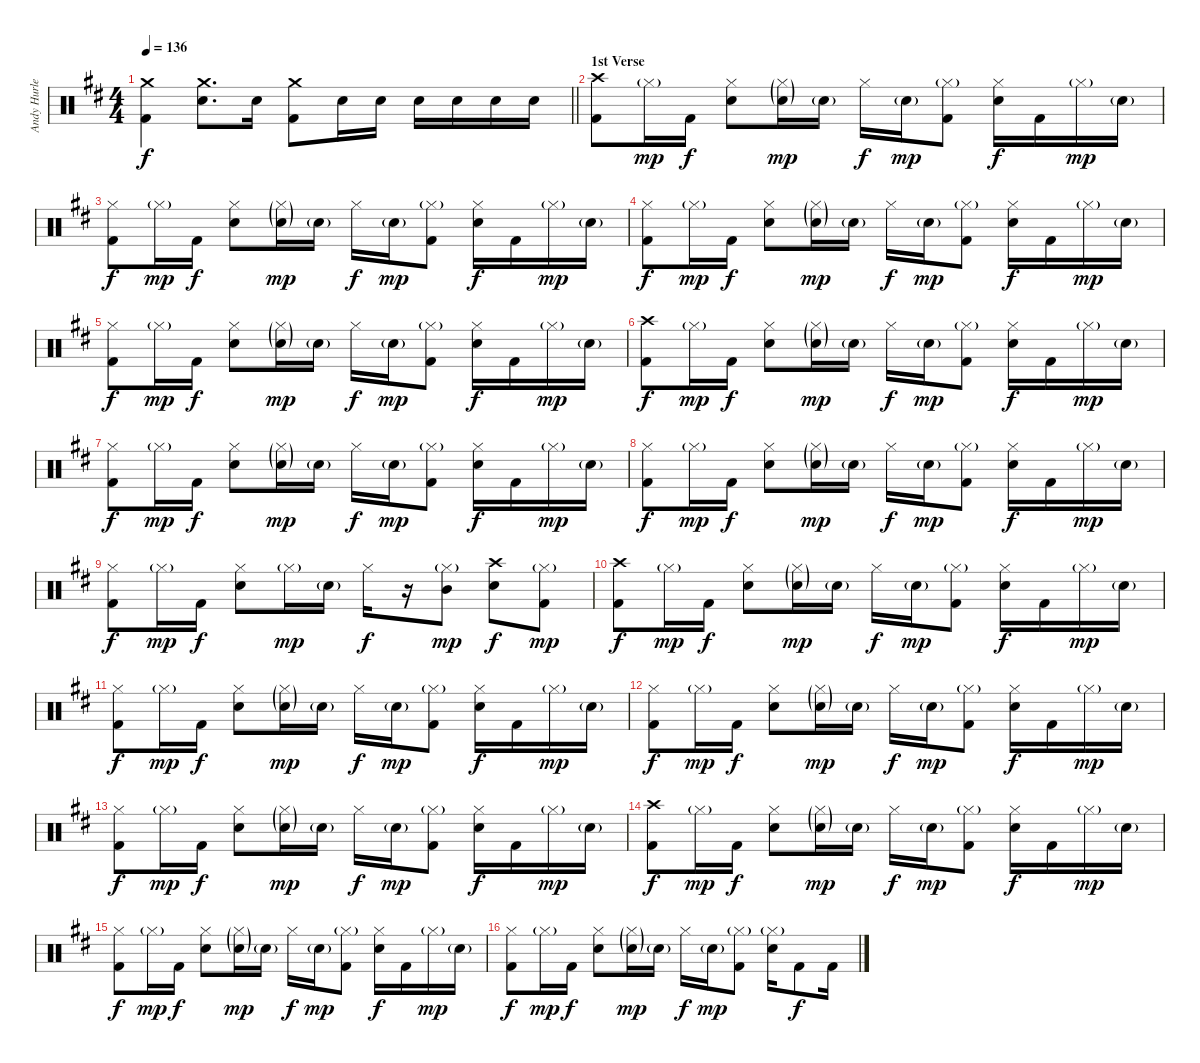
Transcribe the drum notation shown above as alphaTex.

\track ("Andy Hurley" "Andy Hurle") {instrument percussion}
\staff {score}
\articulation defaults
\ts (4 4)
\tempo 136
\clef neutral
\barLineRight lightlight
\ks d
("Crash medium (hit)" "Kick (hit) 2").4{dy f} ("Crash medium (hit)" "Snare (hit) 2").8{d} "Snare (hit) 2".16 ("Crash medium (hit)" "Kick (hit) 2").8 "Snare (hit) 2".16 "Snare (hit) 2".16 "Snare (hit) 2".16 "Snare (hit) 2".16 "Snare (hit) 2".16 "Snare (hit) 2".16 |
\section ("" "1st Verse")
("Crash high (hit)" "Kick (hit) 2").8{volume 13} "Hi-Hat (closed)"{g}.16{dy mp} "Kick (hit) 2".16{dy f} ("Hi-Hat (closed)" "Snare (hit) 2").8 ("Hi-Hat (closed)"{g} "Snare (hit) 2"{g}).16{dy mp} "Snare (hit) 2"{g}.16 "Hi-Hat (closed)".16{dy f} "Snare (hit) 2"{g}.16{dy mp} ("Hi-Hat (closed)"{g} "Kick (hit) 2").8 ("Hi-Hat (closed)" "Snare (hit) 2").16{dy f} "Kick (hit) 2".16 "Hi-Hat (closed)"{g}.16{dy mp} "Snare (hit) 2"{g}.16 |
("Hi-Hat (closed)" "Kick (hit) 2").8{dy f} "Hi-Hat (closed)"{g}.16{dy mp} "Kick (hit) 2".16{dy f} ("Hi-Hat (closed)" "Snare (hit) 2").8 ("Hi-Hat (closed)"{g} "Snare (hit) 2"{g}).16{dy mp} "Snare (hit) 2"{g}.16 "Hi-Hat (closed)".16{dy f} "Snare (hit) 2"{g}.16{dy mp} ("Hi-Hat (closed)"{g} "Kick (hit) 2").8 ("Hi-Hat (closed)" "Snare (hit) 2").16{dy f} "Kick (hit) 2".16 "Hi-Hat (closed)"{g}.16{dy mp} "Snare (hit) 2"{g}.16 |
("Hi-Hat (closed)" "Kick (hit) 2").8{dy f} "Hi-Hat (closed)"{g}.16{dy mp} "Kick (hit) 2".16{dy f} ("Hi-Hat (closed)" "Snare (hit) 2").8 ("Hi-Hat (closed)"{g} "Snare (hit) 2"{g}).16{dy mp} "Snare (hit) 2"{g}.16 "Hi-Hat (closed)".16{dy f} "Snare (hit) 2"{g}.16{dy mp} ("Hi-Hat (closed)"{g} "Kick (hit) 2").8 ("Hi-Hat (closed)" "Snare (hit) 2").16{dy f} "Kick (hit) 2".16 "Hi-Hat (closed)"{g}.16{dy mp} "Snare (hit) 2"{g}.16 |
("Hi-Hat (closed)" "Kick (hit) 2").8{dy f} "Hi-Hat (closed)"{g}.16{dy mp} "Kick (hit) 2".16{dy f} ("Hi-Hat (closed)" "Snare (hit) 2").8 ("Hi-Hat (closed)"{g} "Snare (hit) 2"{g}).16{dy mp} "Snare (hit) 2"{g}.16 "Hi-Hat (closed)".16{dy f} "Snare (hit) 2"{g}.16{dy mp} ("Hi-Hat (closed)"{g} "Kick (hit) 2").8 ("Hi-Hat (closed)" "Snare (hit) 2").16{dy f} "Kick (hit) 2".16 "Hi-Hat (closed)"{g}.16{dy mp} "Snare (hit) 2"{g}.16 |
("Crash high (hit)" "Kick (hit) 2").8{dy f} "Hi-Hat (closed)"{g}.16{dy mp} "Kick (hit) 2".16{dy f} ("Hi-Hat (closed)" "Snare (hit) 2").8 ("Hi-Hat (closed)"{g} "Snare (hit) 2"{g}).16{dy mp} "Snare (hit) 2"{g}.16 "Hi-Hat (closed)".16{dy f} "Snare (hit) 2"{g}.16{dy mp} ("Hi-Hat (closed)"{g} "Kick (hit) 2").8 ("Hi-Hat (closed)" "Snare (hit) 2").16{dy f} "Kick (hit) 2".16 "Hi-Hat (closed)"{g}.16{dy mp} "Snare (hit) 2"{g}.16 |
("Hi-Hat (closed)" "Kick (hit) 2").8{dy f} "Hi-Hat (closed)"{g}.16{dy mp} "Kick (hit) 2".16{dy f} ("Hi-Hat (closed)" "Snare (hit) 2").8 ("Hi-Hat (closed)"{g} "Snare (hit) 2"{g}).16{dy mp} "Snare (hit) 2"{g}.16 "Hi-Hat (closed)".16{dy f} "Snare (hit) 2"{g}.16{dy mp} ("Hi-Hat (closed)"{g} "Kick (hit) 2").8 ("Hi-Hat (closed)" "Snare (hit) 2").16{dy f} "Kick (hit) 2".16 "Hi-Hat (closed)"{g}.16{dy mp} "Snare (hit) 2"{g}.16 |
("Hi-Hat (closed)" "Kick (hit) 2").8{dy f} "Hi-Hat (closed)"{g}.16{dy mp} "Kick (hit) 2".16{dy f} ("Hi-Hat (closed)" "Snare (hit) 2").8 ("Hi-Hat (closed)"{g} "Snare (hit) 2"{g}).16{dy mp} "Snare (hit) 2"{g}.16 "Hi-Hat (closed)".16{dy f} "Snare (hit) 2"{g}.16{dy mp} ("Hi-Hat (closed)"{g} "Kick (hit) 2").8 ("Hi-Hat (closed)" "Snare (hit) 2").16{dy f} "Kick (hit) 2".16 "Hi-Hat (closed)"{g}.16{dy mp} "Snare (hit) 2"{g}.16 |
("Hi-Hat (closed)" "Kick (hit) 2").8{dy f} "Hi-Hat (closed)"{g}.16{dy mp} "Kick (hit) 2".16{dy f} ("Hi-Hat (closed)" "Snare (hit) 2").8 "Hi-Hat (closed)"{g}.16{dy mp} "Snare (hit) 2"{g}.16 "Hi-Hat (closed)".16{dy f} r.16 ("Hi-Hat (closed)"{g} "Mid Tom (hit)").8{dy mp} ("Crash high (hit)" "Snare (hit) 2").8{dy f} ("Hi-Hat (closed)"{g} "Kick (hit) 2").8{dy mp} |
("Crash high (hit)" "Kick (hit) 2").8{dy f} "Hi-Hat (closed)"{g}.16{dy mp} "Kick (hit) 2".16{dy f} ("Hi-Hat (closed)" "Snare (hit) 2").8 ("Hi-Hat (closed)"{g} "Snare (hit) 2"{g}).16{dy mp} "Snare (hit) 2"{g}.16 "Hi-Hat (closed)".16{dy f} "Snare (hit) 2"{g}.16{dy mp} ("Hi-Hat (closed)"{g} "Kick (hit) 2").8 ("Hi-Hat (closed)" "Snare (hit) 2").16{dy f} "Kick (hit) 2".16 "Hi-Hat (closed)"{g}.16{dy mp} "Snare (hit) 2"{g}.16 |
("Hi-Hat (closed)" "Kick (hit) 2").8{dy f} "Hi-Hat (closed)"{g}.16{dy mp} "Kick (hit) 2".16{dy f} ("Hi-Hat (closed)" "Snare (hit) 2").8 ("Hi-Hat (closed)"{g} "Snare (hit) 2"{g}).16{dy mp} "Snare (hit) 2"{g}.16 "Hi-Hat (closed)".16{dy f} "Snare (hit) 2"{g}.16{dy mp} ("Hi-Hat (closed)"{g} "Kick (hit) 2").8 ("Hi-Hat (closed)" "Snare (hit) 2").16{dy f} "Kick (hit) 2".16 "Hi-Hat (closed)"{g}.16{dy mp} "Snare (hit) 2"{g}.16 |
("Hi-Hat (closed)" "Kick (hit) 2").8{dy f} "Hi-Hat (closed)"{g}.16{dy mp} "Kick (hit) 2".16{dy f} ("Hi-Hat (closed)" "Snare (hit) 2").8 ("Hi-Hat (closed)"{g} "Snare (hit) 2"{g}).16{dy mp} "Snare (hit) 2"{g}.16 "Hi-Hat (closed)".16{dy f} "Snare (hit) 2"{g}.16{dy mp} ("Hi-Hat (closed)"{g} "Kick (hit) 2").8 ("Hi-Hat (closed)" "Snare (hit) 2").16{dy f} "Kick (hit) 2".16 "Hi-Hat (closed)"{g}.16{dy mp} "Snare (hit) 2"{g}.16 |
("Hi-Hat (closed)" "Kick (hit) 2").8{dy f} "Hi-Hat (closed)"{g}.16{dy mp} "Kick (hit) 2".16{dy f} ("Hi-Hat (closed)" "Snare (hit) 2").8 ("Hi-Hat (closed)"{g} "Snare (hit) 2"{g}).16{dy mp} "Snare (hit) 2"{g}.16 "Hi-Hat (closed)".16{dy f} "Snare (hit) 2"{g}.16{dy mp} ("Hi-Hat (closed)"{g} "Kick (hit) 2").8 ("Hi-Hat (closed)" "Snare (hit) 2").16{dy f} "Kick (hit) 2".16 "Hi-Hat (closed)"{g}.16{dy mp} "Snare (hit) 2"{g}.16 |
("Crash high (hit)" "Kick (hit) 2").8{dy f} "Hi-Hat (closed)"{g}.16{dy mp} "Kick (hit) 2".16{dy f} ("Hi-Hat (closed)" "Snare (hit) 2").8 ("Hi-Hat (closed)"{g} "Snare (hit) 2"{g}).16{dy mp} "Snare (hit) 2"{g}.16 "Hi-Hat (closed)".16{dy f} "Snare (hit) 2"{g}.16{dy mp} ("Hi-Hat (closed)"{g} "Kick (hit) 2").8 ("Hi-Hat (closed)" "Snare (hit) 2").16{dy f} "Kick (hit) 2".16 "Hi-Hat (closed)"{g}.16{dy mp} "Snare (hit) 2"{g}.16 |
("Hi-Hat (closed)" "Kick (hit) 2").8{dy f} "Hi-Hat (closed)"{g}.16{dy mp} "Kick (hit) 2".16{dy f} ("Hi-Hat (closed)" "Snare (hit) 2").8 ("Hi-Hat (closed)"{g} "Snare (hit) 2"{g}).16{dy mp} "Snare (hit) 2"{g}.16 "Hi-Hat (closed)".16{dy f} "Snare (hit) 2"{g}.16{dy mp} ("Hi-Hat (closed)"{g} "Kick (hit) 2").8 ("Hi-Hat (closed)" "Snare (hit) 2").16{dy f} "Kick (hit) 2".16 "Hi-Hat (closed)"{g}.16{dy mp} "Snare (hit) 2"{g}.16 |
("Hi-Hat (closed)" "Kick (hit) 2").8{dy f} "Hi-Hat (closed)"{g}.16{dy mp} "Kick (hit) 2".16{dy f} ("Hi-Hat (closed)" "Snare (hit) 2").8 ("Hi-Hat (closed)"{g} "Snare (hit) 2"{g}).16{dy mp} "Snare (hit) 2"{g}.16 "Hi-Hat (closed)".16{dy f} "Snare (hit) 2"{g}.16{dy mp} ("Hi-Hat (closed)"{g} "Kick (hit) 2").8{volume 16} ("Hi-Hat (closed)"{g} "Snare (hit) 2").16 "Kick (hit) 2".8{dy f} "Kick (hit) 2".16
